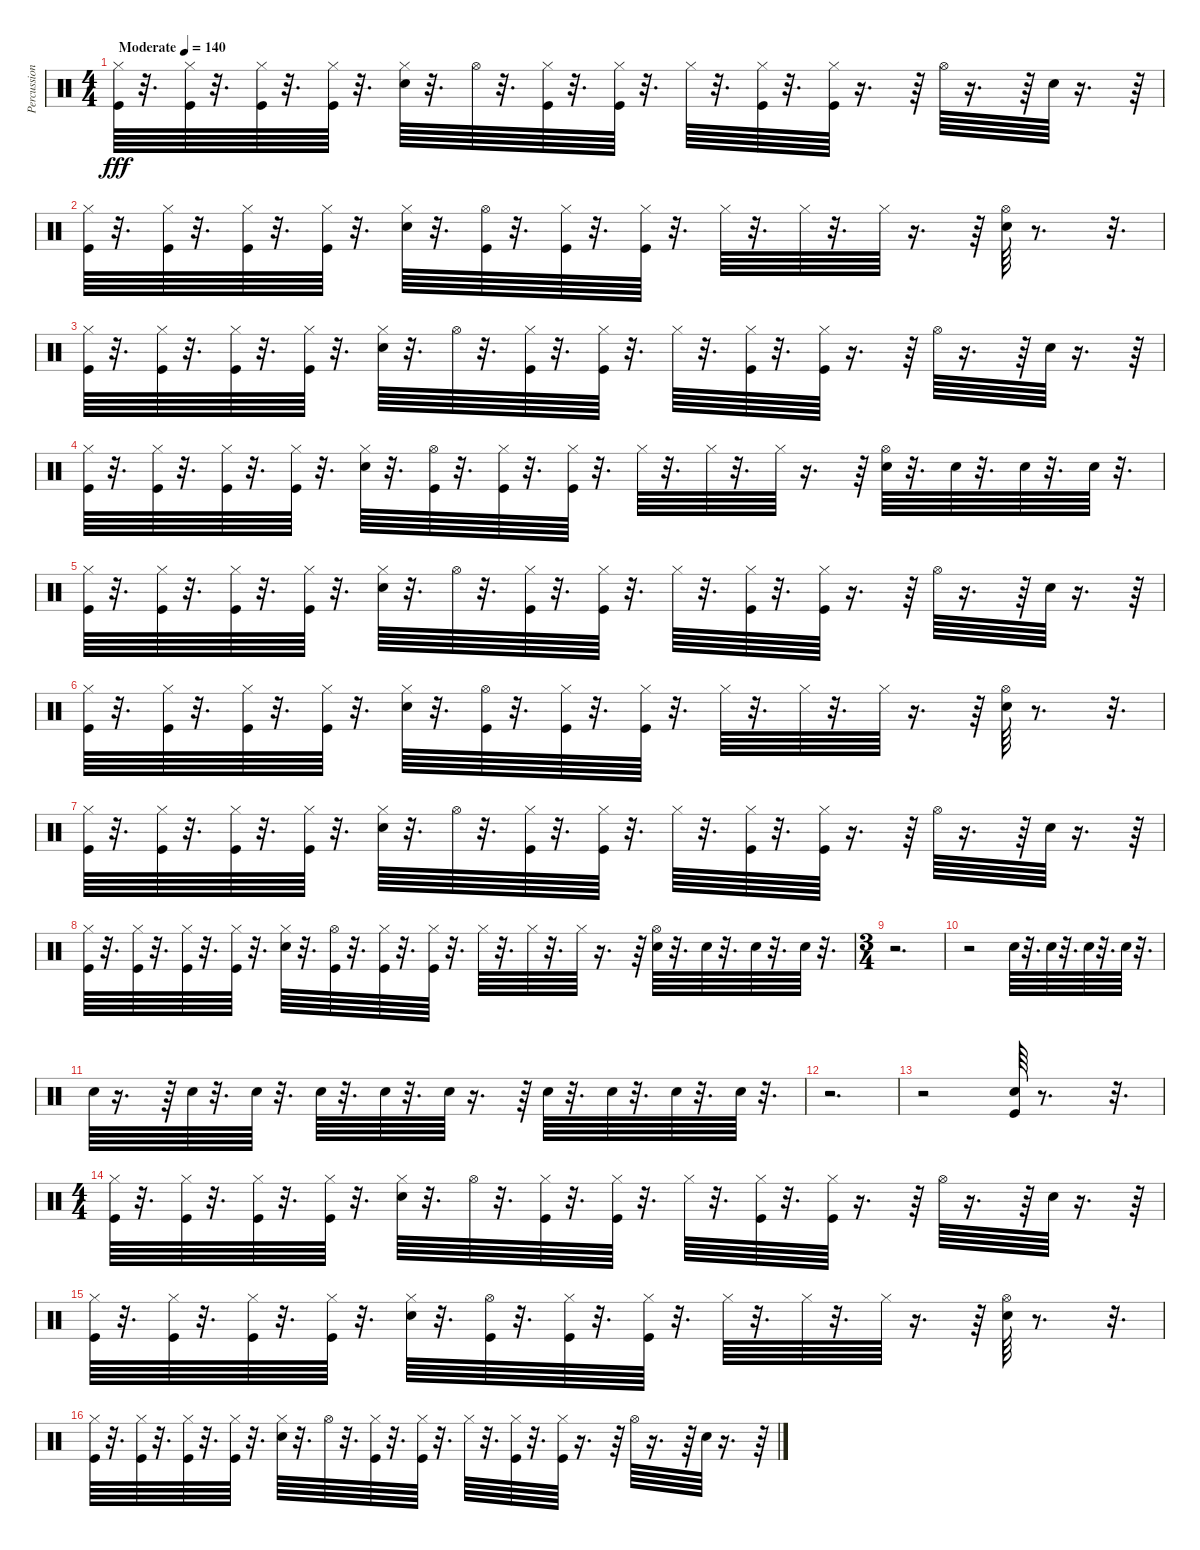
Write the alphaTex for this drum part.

\track ("Percussion [Room Kit]" "Percussion") {instrument percussion}
\staff {score}
\articulation defaults
\ts (4 4)
\tempo (140 "Moderate")
\clef neutral
\ks c
("Kick (hit)" "Hi-Hat (closed)").64{dy fff} r.32{d} ("Kick (hit)" "Hi-Hat (closed)").64 r.32{d} ("Kick (hit)" "Hi-Hat (closed)").64 r.32{d} ("Kick (hit)" "Hi-Hat (closed)").64 r.32{d} ("Electric Snare (hit)" "Hi-Hat (closed)").64 r.32{d} "Hi-Hat (open)".64 r.32{d} ("Kick (hit)" "Hi-Hat (closed)").64 r.32{d} ("Kick (hit)" "Hi-Hat (closed)").64 r.32{d} "Hi-Hat (closed)".64 r.32{d} ("Kick (hit)" "Hi-Hat (closed)").64 r.32{d} ("Kick (hit)" "Hi-Hat (closed)").64 r.16{d} r.64 "Hi-Hat (open)".64 r.16{d} r.64 "Electric Snare (hit)".64 r.16{d} r.64 |
("Kick (hit)" "Hi-Hat (closed)").64 r.32{d} ("Kick (hit)" "Hi-Hat (closed)").64 r.32{d} ("Kick (hit)" "Hi-Hat (closed)").64 r.32{d} ("Kick (hit)" "Hi-Hat (closed)").64 r.32{d} ("Electric Snare (hit)" "Hi-Hat (closed)").64 r.32{d} ("Kick (hit)" "Hi-Hat (open)").64 r.32{d} ("Kick (hit)" "Hi-Hat (closed)").64 r.32{d} ("Kick (hit)" "Hi-Hat (closed)").64 r.32{d} "Hi-Hat (closed)".64 r.32{d} "Hi-Hat (closed)".64 r.32{d} "Hi-Hat (closed)".64 r.16{d} r.64 ("Electric Snare (hit)" "Hi-Hat (open)").64 r.8{d} r.32{d} |
("Kick (hit)" "Hi-Hat (closed)").64 r.32{d} ("Kick (hit)" "Hi-Hat (closed)").64 r.32{d} ("Kick (hit)" "Hi-Hat (closed)").64 r.32{d} ("Kick (hit)" "Hi-Hat (closed)").64 r.32{d} ("Electric Snare (hit)" "Hi-Hat (closed)").64 r.32{d} "Hi-Hat (open)".64 r.32{d} ("Kick (hit)" "Hi-Hat (closed)").64 r.32{d} ("Kick (hit)" "Hi-Hat (closed)").64 r.32{d} "Hi-Hat (closed)".64 r.32{d} ("Kick (hit)" "Hi-Hat (closed)").64 r.32{d} ("Kick (hit)" "Hi-Hat (closed)").64 r.16{d} r.64 "Hi-Hat (open)".64 r.16{d} r.64 "Electric Snare (hit)".64 r.16{d} r.64 |
("Kick (hit)" "Hi-Hat (closed)").64 r.32{d} ("Kick (hit)" "Hi-Hat (closed)").64 r.32{d} ("Kick (hit)" "Hi-Hat (closed)").64 r.32{d} ("Kick (hit)" "Hi-Hat (closed)").64 r.32{d} ("Electric Snare (hit)" "Hi-Hat (closed)").64 r.32{d} ("Kick (hit)" "Hi-Hat (open)").64 r.32{d} ("Kick (hit)" "Hi-Hat (closed)").64 r.32{d} ("Kick (hit)" "Hi-Hat (closed)").64 r.32{d} "Hi-Hat (closed)".64 r.32{d} "Hi-Hat (closed)".64 r.32{d} "Hi-Hat (closed)".64 r.16{d} r.64 ("Electric Snare (hit)" "Hi-Hat (open)").64 r.32{d} "Electric Snare (hit)".64 r.32{d} "Electric Snare (hit)".64 r.32{d} "Electric Snare (hit)".64 r.32{d} |
("Kick (hit)" "Hi-Hat (closed)").64 r.32{d} ("Kick (hit)" "Hi-Hat (closed)").64 r.32{d} ("Kick (hit)" "Hi-Hat (closed)").64 r.32{d} ("Kick (hit)" "Hi-Hat (closed)").64 r.32{d} ("Electric Snare (hit)" "Hi-Hat (closed)").64 r.32{d} "Hi-Hat (open)".64 r.32{d} ("Kick (hit)" "Hi-Hat (closed)").64 r.32{d} ("Kick (hit)" "Hi-Hat (closed)").64 r.32{d} "Hi-Hat (closed)".64 r.32{d} ("Kick (hit)" "Hi-Hat (closed)").64 r.32{d} ("Kick (hit)" "Hi-Hat (closed)").64 r.16{d} r.64 "Hi-Hat (open)".64 r.16{d} r.64 "Electric Snare (hit)".64 r.16{d} r.64 |
("Kick (hit)" "Hi-Hat (closed)").64 r.32{d} ("Kick (hit)" "Hi-Hat (closed)").64 r.32{d} ("Kick (hit)" "Hi-Hat (closed)").64 r.32{d} ("Kick (hit)" "Hi-Hat (closed)").64 r.32{d} ("Electric Snare (hit)" "Hi-Hat (closed)").64 r.32{d} ("Kick (hit)" "Hi-Hat (open)").64 r.32{d} ("Kick (hit)" "Hi-Hat (closed)").64 r.32{d} ("Kick (hit)" "Hi-Hat (closed)").64 r.32{d} "Hi-Hat (closed)".64 r.32{d} "Hi-Hat (closed)".64 r.32{d} "Hi-Hat (closed)".64 r.16{d} r.64 ("Electric Snare (hit)" "Hi-Hat (open)").64 r.8{d} r.32{d} |
("Kick (hit)" "Hi-Hat (closed)").64 r.32{d} ("Kick (hit)" "Hi-Hat (closed)").64 r.32{d} ("Kick (hit)" "Hi-Hat (closed)").64 r.32{d} ("Kick (hit)" "Hi-Hat (closed)").64 r.32{d} ("Electric Snare (hit)" "Hi-Hat (closed)").64 r.32{d} "Hi-Hat (open)".64 r.32{d} ("Kick (hit)" "Hi-Hat (closed)").64 r.32{d} ("Kick (hit)" "Hi-Hat (closed)").64 r.32{d} "Hi-Hat (closed)".64 r.32{d} ("Kick (hit)" "Hi-Hat (closed)").64 r.32{d} ("Kick (hit)" "Hi-Hat (closed)").64 r.16{d} r.64 "Hi-Hat (open)".64 r.16{d} r.64 "Electric Snare (hit)".64 r.16{d} r.64 |
("Kick (hit)" "Hi-Hat (closed)").64 r.32{d} ("Kick (hit)" "Hi-Hat (closed)").64 r.32{d} ("Kick (hit)" "Hi-Hat (closed)").64 r.32{d} ("Kick (hit)" "Hi-Hat (closed)").64 r.32{d} ("Electric Snare (hit)" "Hi-Hat (closed)").64 r.32{d} ("Kick (hit)" "Hi-Hat (open)").64 r.32{d} ("Kick (hit)" "Hi-Hat (closed)").64 r.32{d} ("Kick (hit)" "Hi-Hat (closed)").64 r.32{d} "Hi-Hat (closed)".64 r.32{d} "Hi-Hat (closed)".64 r.32{d} "Hi-Hat (closed)".64 r.16{d} r.64 ("Electric Snare (hit)" "Hi-Hat (open)").64 r.32{d} "Electric Snare (hit)".64 r.32{d} "Electric Snare (hit)".64 r.32{d} "Electric Snare (hit)".64 r.32{d} |
\ts (3 4)
r.2{d} |
r.2 "Electric Snare (hit)".64 r.32{d} "Electric Snare (hit)".64 r.32{d} "Electric Snare (hit)".64 r.32{d} "Electric Snare (hit)".64 r.32{d} |
"Electric Snare (hit)".64 r.16{d} r.64 "Electric Snare (hit)".64 r.32{d} "Electric Snare (hit)".64 r.32{d} "Electric Snare (hit)".64 r.32{d} "Electric Snare (hit)".64 r.32{d} "Electric Snare (hit)".64 r.16{d} r.64 "Electric Snare (hit)".64 r.32{d} "Electric Snare (hit)".64 r.32{d} "Electric Snare (hit)".64 r.32{d} "Electric Snare (hit)".64 r.32{d} |
r.2{d} |
r.2 ("Electric Snare (hit)" "Kick (hit)").64 r.8{d} r.32{d} |
\ts (4 4)
("Kick (hit)" "Hi-Hat (closed)").64 r.32{d} ("Kick (hit)" "Hi-Hat (closed)").64 r.32{d} ("Kick (hit)" "Hi-Hat (closed)").64 r.32{d} ("Kick (hit)" "Hi-Hat (closed)").64 r.32{d} ("Electric Snare (hit)" "Hi-Hat (closed)").64 r.32{d} "Hi-Hat (open)".64 r.32{d} ("Kick (hit)" "Hi-Hat (closed)").64 r.32{d} ("Kick (hit)" "Hi-Hat (closed)").64 r.32{d} "Hi-Hat (closed)".64 r.32{d} ("Kick (hit)" "Hi-Hat (closed)").64 r.32{d} ("Kick (hit)" "Hi-Hat (closed)").64 r.16{d} r.64 "Hi-Hat (open)".64 r.16{d} r.64 "Electric Snare (hit)".64 r.16{d} r.64 |
("Kick (hit)" "Hi-Hat (closed)").64 r.32{d} ("Kick (hit)" "Hi-Hat (closed)").64 r.32{d} ("Kick (hit)" "Hi-Hat (closed)").64 r.32{d} ("Kick (hit)" "Hi-Hat (closed)").64 r.32{d} ("Electric Snare (hit)" "Hi-Hat (closed)").64 r.32{d} ("Kick (hit)" "Hi-Hat (open)").64 r.32{d} ("Kick (hit)" "Hi-Hat (closed)").64 r.32{d} ("Kick (hit)" "Hi-Hat (closed)").64 r.32{d} "Hi-Hat (closed)".64 r.32{d} "Hi-Hat (closed)".64 r.32{d} "Hi-Hat (closed)".64 r.16{d} r.64 ("Electric Snare (hit)" "Hi-Hat (open)").64 r.8{d} r.32{d} |
("Kick (hit)" "Hi-Hat (closed)").64 r.32{d} ("Kick (hit)" "Hi-Hat (closed)").64 r.32{d} ("Kick (hit)" "Hi-Hat (closed)").64 r.32{d} ("Kick (hit)" "Hi-Hat (closed)").64 r.32{d} ("Electric Snare (hit)" "Hi-Hat (closed)").64 r.32{d} "Hi-Hat (open)".64 r.32{d} ("Kick (hit)" "Hi-Hat (closed)").64 r.32{d} ("Kick (hit)" "Hi-Hat (closed)").64 r.32{d} "Hi-Hat (closed)".64 r.32{d} ("Kick (hit)" "Hi-Hat (closed)").64 r.32{d} ("Kick (hit)" "Hi-Hat (closed)").64 r.16{d} r.64 "Hi-Hat (open)".64 r.16{d} r.64 "Electric Snare (hit)".64 r.16{d} r.64
